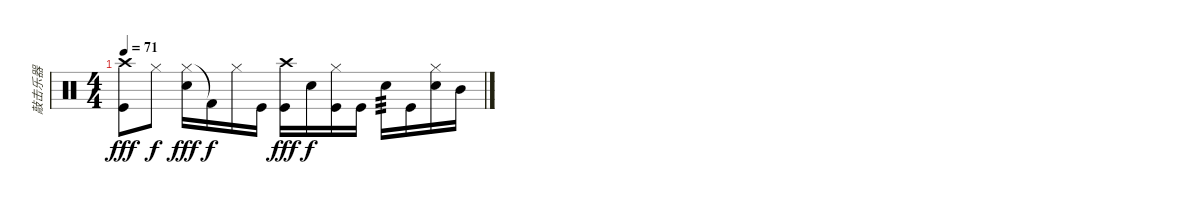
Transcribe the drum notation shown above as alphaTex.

\track ("敲击乐器" "敲击乐器") {instrument percussion}
\staff {score}
\articulation defaults
\ts (4 4)
\tempo 71
\clef neutral
\ks c
("Crash high (hit)" "Kick (hit)").8{dy fff} "Hi-Hat (closed)".8{dy f} ("Hi-Hat (closed)" "Electric Snare (hit)").16{dy fff} "Kick (hit) 2"{t}.16{dy f} "Hi-Hat (closed)".16 "Kick (hit)".16 ("Crash high (hit)" "Kick (hit)").16{dy fff} "Electric Snare (hit)".16{dy f} ("Hi-Hat (closed)" "Kick (hit)").16 "Kick (hit)".16 "Electric Snare (hit)".16{tp 3} "Kick (hit)".16 ("Hi-Hat (closed)" "Electric Snare (hit)").16 "Mid Tom (hit)".16
